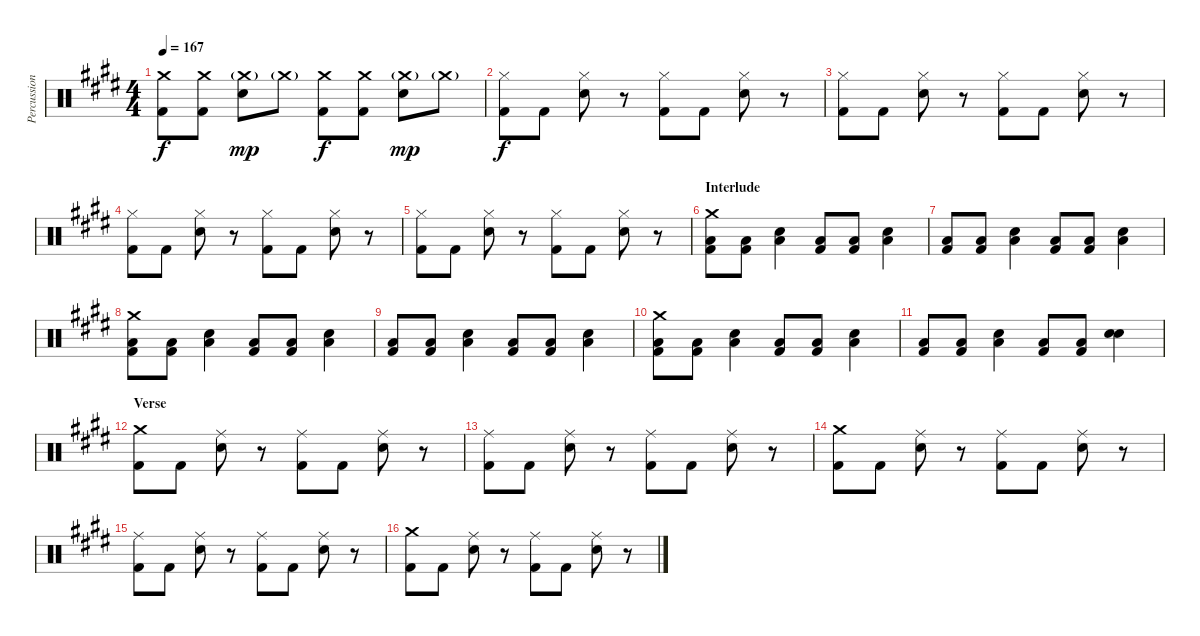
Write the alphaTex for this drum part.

\track ("Percussion" "Percussion") {instrument percussion}
\staff {score}
\articulation defaults
\ts (4 4)
\tempo 167
\clef neutral
\ks e
("Crash medium (hit)" "Kick (hit) 2").8{dy f} ("Crash medium (hit)" "Kick (hit) 2").8 ("Crash medium (hit)"{g} "Electric Snare (hit)").8{dy mp} "Crash medium (hit)"{g}.8 ("Crash medium (hit)" "Kick (hit) 2").8{dy f} ("Crash medium (hit)" "Kick (hit) 2").8 ("Crash medium (hit)"{g} "Electric Snare (hit)").8{dy mp} "Crash medium (hit)"{g}.8 |
("Hi-Hat (closed)" "Kick (hit) 2").8{dy f} "Kick (hit) 2".8 ("Hi-Hat (closed)" "Electric Snare (hit)").8 r.8 ("Hi-Hat (closed)" "Kick (hit) 2").8 "Kick (hit) 2".8 ("Hi-Hat (closed)" "Electric Snare (hit)").8 r.8 |
("Hi-Hat (closed)" "Kick (hit) 2").8 "Kick (hit) 2".8 ("Hi-Hat (closed)" "Electric Snare (hit)").8 r.8 ("Hi-Hat (closed)" "Kick (hit) 2").8 "Kick (hit) 2".8 ("Hi-Hat (closed)" "Electric Snare (hit)").8 r.8 |
("Hi-Hat (closed)" "Kick (hit) 2").8 "Kick (hit) 2".8 ("Hi-Hat (closed)" "Electric Snare (hit)").8 r.8 ("Hi-Hat (closed)" "Kick (hit) 2").8 "Kick (hit) 2".8 ("Hi-Hat (closed)" "Electric Snare (hit)").8 r.8 |
("Hi-Hat (closed)" "Kick (hit) 2").8 "Kick (hit) 2".8 ("Hi-Hat (closed)" "Electric Snare (hit)").8 r.8 ("Hi-Hat (closed)" "Kick (hit) 2").8 "Kick (hit) 2".8 ("Hi-Hat (closed)" "Electric Snare (hit)").8 r.8 |
\section ("" "Interlude")
("Crash medium (hit)" "Low Floor Tom (hit)" "Kick (hit) 2").8 ("Low Floor Tom (hit)" "Kick (hit) 2").8 ("Low Floor Tom (hit)" "Electric Snare (hit)").4 ("Low Floor Tom (hit)" "Kick (hit) 2").8 ("Low Floor Tom (hit)" "Kick (hit) 2").8 ("Low Floor Tom (hit)" "Electric Snare (hit)").4 |
("Low Floor Tom (hit)" "Kick (hit) 2").8 ("Low Floor Tom (hit)" "Kick (hit) 2").8 ("Low Floor Tom (hit)" "Electric Snare (hit)").4 ("Low Floor Tom (hit)" "Kick (hit) 2").8 ("Low Floor Tom (hit)" "Kick (hit) 2").8 ("Low Floor Tom (hit)" "Electric Snare (hit)").4 |
("Crash medium (hit)" "Low Floor Tom (hit)" "Kick (hit) 2").8 ("Low Floor Tom (hit)" "Kick (hit) 2").8 ("Low Floor Tom (hit)" "Electric Snare (hit)").4 ("Low Floor Tom (hit)" "Kick (hit) 2").8 ("Low Floor Tom (hit)" "Kick (hit) 2").8 ("Low Floor Tom (hit)" "Electric Snare (hit)").4 |
("Low Floor Tom (hit)" "Kick (hit) 2").8 ("Low Floor Tom (hit)" "Kick (hit) 2").8 ("Low Floor Tom (hit)" "Electric Snare (hit)").4 ("Low Floor Tom (hit)" "Kick (hit) 2").8 ("Low Floor Tom (hit)" "Kick (hit) 2").8 ("Low Floor Tom (hit)" "Electric Snare (hit)").4 |
("Crash medium (hit)" "Low Floor Tom (hit)" "Kick (hit) 2").8 ("Low Floor Tom (hit)" "Kick (hit) 2").8 ("Low Floor Tom (hit)" "Electric Snare (hit)").4 ("Low Floor Tom (hit)" "Kick (hit) 2").8 ("Low Floor Tom (hit)" "Kick (hit) 2").8 ("Low Floor Tom (hit)" "Electric Snare (hit)").4 |
("Low Floor Tom (hit)" "Kick (hit) 2").8 ("Low Floor Tom (hit)" "Kick (hit) 2").8 ("Low Floor Tom (hit)" "Electric Snare (hit)").4 ("Low Floor Tom (hit)" "Kick (hit) 2").8 ("Low Floor Tom (hit)" "Kick (hit) 2").8 ("Electric Snare (hit)" "Electric Snare (hit)").4{bu 240} |
\section ("" "Verse")
("Crash medium (hit)" "Kick (hit) 2").8 "Kick (hit) 2".8 ("Ride (middle)" "Electric Snare (hit)").8 r.8 ("Ride (middle)" "Kick (hit) 2").8 "Kick (hit) 2".8 ("Ride (middle)" "Electric Snare (hit)").8 r.8 |
("Ride (middle)" "Kick (hit) 2").8 "Kick (hit) 2".8 ("Ride (middle)" "Electric Snare (hit)").8 r.8 ("Ride (middle)" "Kick (hit) 2").8 "Kick (hit) 2".8 ("Ride (middle)" "Electric Snare (hit)").8 r.8 |
("Crash medium (hit)" "Kick (hit) 2").8 "Kick (hit) 2".8 ("Ride (middle)" "Electric Snare (hit)").8 r.8 ("Ride (middle)" "Kick (hit) 2").8 "Kick (hit) 2".8 ("Ride (middle)" "Electric Snare (hit)").8 r.8 |
("Ride (middle)" "Kick (hit) 2").8 "Kick (hit) 2".8 ("Ride (middle)" "Electric Snare (hit)").8 r.8 ("Ride (middle)" "Kick (hit) 2").8 "Kick (hit) 2".8 ("Ride (middle)" "Electric Snare (hit)").8 r.8 |
("Crash medium (hit)" "Kick (hit) 2").8 "Kick (hit) 2".8 ("Ride (middle)" "Electric Snare (hit)").8 r.8 ("Ride (middle)" "Kick (hit) 2").8 "Kick (hit) 2".8 ("Ride (middle)" "Electric Snare (hit)").8 r.8
